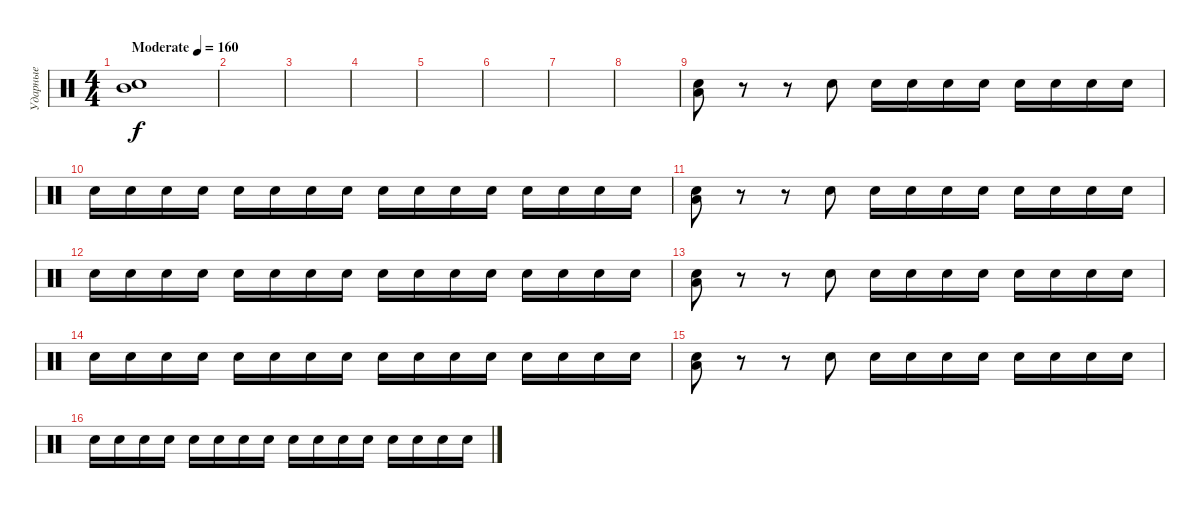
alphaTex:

\track ("Ударные" "Ударные") {instrument percussion}
\staff {score}
\articulation defaults
\ts (4 4)
\tempo (160 "Moderate")
\clef neutral
\ks c
("Electric Snare (hit)" "Mid Tom (hit)").1{dy f} |
|
|
|
|
|
|
|
("Low Floor Tom (hit)" "Electric Snare (hit)").8 r.8 r.8 "Electric Snare (hit)".8 "Electric Snare (hit)".16 "Electric Snare (hit)".16 "Electric Snare (hit)".16 "Electric Snare (hit)".16 "Electric Snare (hit)".16 "Electric Snare (hit)".16 "Electric Snare (hit)".16 "Electric Snare (hit)".16 |
"Electric Snare (hit)".16 "Electric Snare (hit)".16 "Electric Snare (hit)".16 "Electric Snare (hit)".16 "Electric Snare (hit)".16 "Electric Snare (hit)".16 "Electric Snare (hit)".16 "Electric Snare (hit)".16 "Electric Snare (hit)".16 "Electric Snare (hit)".16 "Electric Snare (hit)".16 "Electric Snare (hit)".16 "Electric Snare (hit)".16 "Electric Snare (hit)".16 "Electric Snare (hit)".16 "Electric Snare (hit)".16 |
("Low Floor Tom (hit)" "Electric Snare (hit)").8 r.8 r.8 "Electric Snare (hit)".8 "Electric Snare (hit)".16 "Electric Snare (hit)".16 "Electric Snare (hit)".16 "Electric Snare (hit)".16 "Electric Snare (hit)".16 "Electric Snare (hit)".16 "Electric Snare (hit)".16 "Electric Snare (hit)".16 |
"Electric Snare (hit)".16 "Electric Snare (hit)".16 "Electric Snare (hit)".16 "Electric Snare (hit)".16 "Electric Snare (hit)".16 "Electric Snare (hit)".16 "Electric Snare (hit)".16 "Electric Snare (hit)".16 "Electric Snare (hit)".16 "Electric Snare (hit)".16 "Electric Snare (hit)".16 "Electric Snare (hit)".16 "Electric Snare (hit)".16 "Electric Snare (hit)".16 "Electric Snare (hit)".16 "Electric Snare (hit)".16 |
("Low Floor Tom (hit)" "Electric Snare (hit)").8 r.8 r.8 "Electric Snare (hit)".8 "Electric Snare (hit)".16 "Electric Snare (hit)".16 "Electric Snare (hit)".16 "Electric Snare (hit)".16 "Electric Snare (hit)".16 "Electric Snare (hit)".16 "Electric Snare (hit)".16 "Electric Snare (hit)".16 |
"Electric Snare (hit)".16 "Electric Snare (hit)".16 "Electric Snare (hit)".16 "Electric Snare (hit)".16 "Electric Snare (hit)".16 "Electric Snare (hit)".16 "Electric Snare (hit)".16 "Electric Snare (hit)".16 "Electric Snare (hit)".16 "Electric Snare (hit)".16 "Electric Snare (hit)".16 "Electric Snare (hit)".16 "Electric Snare (hit)".16 "Electric Snare (hit)".16 "Electric Snare (hit)".16 "Electric Snare (hit)".16 |
("Low Floor Tom (hit)" "Electric Snare (hit)").8 r.8 r.8 "Electric Snare (hit)".8 "Electric Snare (hit)".16 "Electric Snare (hit)".16 "Electric Snare (hit)".16 "Electric Snare (hit)".16 "Electric Snare (hit)".16 "Electric Snare (hit)".16 "Electric Snare (hit)".16 "Electric Snare (hit)".16 |
"Electric Snare (hit)".16 "Electric Snare (hit)".16 "Electric Snare (hit)".16 "Electric Snare (hit)".16 "Electric Snare (hit)".16 "Electric Snare (hit)".16 "Electric Snare (hit)".16 "Electric Snare (hit)".16 "Electric Snare (hit)".16 "Electric Snare (hit)".16 "Electric Snare (hit)".16 "Electric Snare (hit)".16 "Electric Snare (hit)".16 "Electric Snare (hit)".16 "Electric Snare (hit)".16 "Electric Snare (hit)".16
